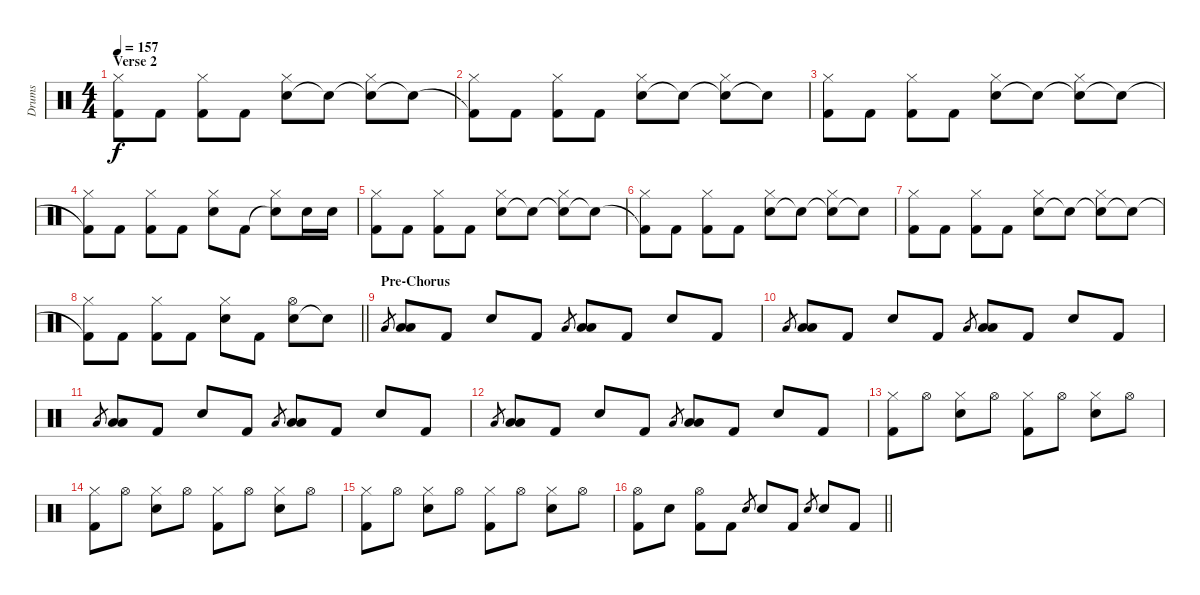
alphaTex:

\track ("Drums" "Drums") {instrument percussion}
\staff {score}
\articulation defaults
\ts (4 4)
\section ("" "Verse 2")
\tempo 157
\clef neutral
\ks c
("Kick (hit) 2" "Hi-Hat (closed)").8{dy f} "Kick (hit) 2".8 ("Kick (hit) 2" "Hi-Hat (closed)").8 "Kick (hit) 2".8 ("Electric Snare (hit)" "Hi-Hat (closed)").8 "Snare (hit)"{t}.8 ("Snare (hit)"{t} "Hi-Hat (closed)").8 "Snare (hit)"{t}.8 |
("Kick (hit) 2"{t} "Hi-Hat (closed)").8 "Kick (hit) 2".8 ("Kick (hit) 2" "Hi-Hat (closed)").8 "Kick (hit) 2".8 ("Electric Snare (hit)" "Hi-Hat (closed)").8 "Electric Snare (hit)"{t}.8 ("Snare (hit)"{t} "Hi-Hat (closed)").8 "Snare (hit)"{t}.8 |
("Kick (hit) 2" "Hi-Hat (closed)").8 "Kick (hit) 2".8 ("Kick (hit) 2" "Hi-Hat (closed)").8 "Kick (hit) 2".8 ("Electric Snare (hit)" "Hi-Hat (closed)").8 "Snare (hit)"{t}.8 ("Snare (hit)"{t} "Hi-Hat (closed)").8 "Snare (hit)"{t}.8 |
("Kick (hit) 2"{t} "Hi-Hat (closed)").8 "Kick (hit) 2".8 ("Kick (hit) 2" "Hi-Hat (closed)").8 "Kick (hit) 2".8 ("Electric Snare (hit)" "Hi-Hat (closed)").8 "Kick (hit) 2".8 ("Snare (hit)"{t} "Hi-Hat (closed)").8 "Electric Snare (hit)".16 "Electric Snare (hit)".16 |
("Kick (hit) 2" "Hi-Hat (closed)").8 "Kick (hit) 2".8 ("Kick (hit) 2" "Hi-Hat (closed)").8 "Kick (hit) 2".8 ("Electric Snare (hit)" "Hi-Hat (closed)").8 "Snare (hit)"{t}.8 ("Snare (hit)"{t} "Hi-Hat (closed)").8 "Snare (hit)"{t}.8 |
("Kick (hit) 2"{t} "Hi-Hat (closed)").8 "Kick (hit) 2".8 ("Kick (hit) 2" "Hi-Hat (closed)").8 "Kick (hit) 2".8 ("Electric Snare (hit)" "Hi-Hat (closed)").8 "Electric Snare (hit)"{t}.8 ("Snare (hit)"{t} "Hi-Hat (closed)").8 "Snare (hit)"{t}.8 |
("Kick (hit) 2" "Hi-Hat (closed)").8 "Kick (hit) 2".8 ("Kick (hit) 2" "Hi-Hat (closed)").8 "Kick (hit) 2".8 ("Electric Snare (hit)" "Hi-Hat (closed)").8 "Snare (hit)"{t}.8 ("Snare (hit)"{t} "Hi-Hat (closed)").8 "Snare (hit)"{t}.8 |
\barLineRight lightlight
("Kick (hit) 2"{t} "Hi-Hat (closed)").8 "Kick (hit) 2".8 ("Kick (hit) 2" "Hi-Hat (closed)").8 "Kick (hit) 2".8 ("Electric Snare (hit)" "Hi-Hat (closed)").8 "Kick (hit) 2".8 ("Electric Snare (hit)" "Hi-Hat (open)").8 "Snare (hit)"{t}.8 |
\section ("" "Pre-Chorus")
"Low Tom (hit)".8{gr} ("Low Tom (hit)" "Low Floor Tom (hit)").8 "Kick (hit) 2".8 "Electric Snare (hit)".8 "Kick (hit) 2".8 "Low Tom (hit)".8{gr} ("Low Tom (hit)" "Low Floor Tom (hit)").8 "Kick (hit) 2".8 "Electric Snare (hit)".8 "Kick (hit) 2".8 |
"Low Tom (hit)".8{gr} ("Low Tom (hit)" "Low Floor Tom (hit)").8 "Kick (hit) 2".8 "Electric Snare (hit)".8 "Kick (hit) 2".8 "Low Tom (hit)".8{gr} ("Low Tom (hit)" "Low Floor Tom (hit)").8 "Kick (hit) 2".8 "Electric Snare (hit)".8 "Kick (hit) 2".8 |
"Low Tom (hit)".8{gr} ("Low Tom (hit)" "Low Floor Tom (hit)").8 "Kick (hit) 2".8 "Electric Snare (hit)".8 "Kick (hit) 2".8 "Low Tom (hit)".8{gr} ("Low Tom (hit)" "Low Floor Tom (hit)").8 "Kick (hit) 2".8 "Electric Snare (hit)".8 "Kick (hit) 2".8 |
"Low Tom (hit)".8{gr} ("Low Tom (hit)" "Low Floor Tom (hit)").8 "Kick (hit) 2".8 "Electric Snare (hit)".8 "Kick (hit) 2".8 "Low Tom (hit)".8{gr} ("Low Tom (hit)" "Low Floor Tom (hit)").8 "Kick (hit) 2".8 "Electric Snare (hit)".8 "Kick (hit) 2".8 |
("Kick (hit) 2" "Hi-Hat (closed)").8 "Hi-Hat (open)".8 ("Electric Snare (hit)" "Hi-Hat (closed)").8 "Hi-Hat (open)".8 ("Kick (hit) 2" "Hi-Hat (closed)").8 "Hi-Hat (open)".8 ("Electric Snare (hit)" "Hi-Hat (closed)").8 "Hi-Hat (open)".8 |
("Kick (hit) 2" "Hi-Hat (closed)").8 "Hi-Hat (open)".8 ("Electric Snare (hit)" "Hi-Hat (closed)").8 "Hi-Hat (open)".8 ("Kick (hit) 2" "Hi-Hat (closed)").8 "Hi-Hat (open)".8 ("Electric Snare (hit)" "Hi-Hat (closed)").8 "Hi-Hat (open)".8 |
("Kick (hit) 2" "Hi-Hat (closed)").8 "Hi-Hat (open)".8 ("Electric Snare (hit)" "Hi-Hat (closed)").8 "Hi-Hat (open)".8 ("Kick (hit) 2" "Hi-Hat (closed)").8 "Hi-Hat (open)".8 ("Electric Snare (hit)" "Hi-Hat (closed)").8 "Hi-Hat (open)".8 |
\barLineRight lightlight
("Kick (hit) 2" "Hi-Hat (open)").8 "Electric Snare (hit)".8 ("Kick (hit) 2" "Hi-Hat (open)").8 "Kick (hit) 2".8 "Electric Snare (hit)".8{gr} "Electric Snare (hit)".8 "Kick (hit) 2".8 "Electric Snare (hit)".8{gr} "Electric Snare (hit)".8 "Kick (hit) 2".8
